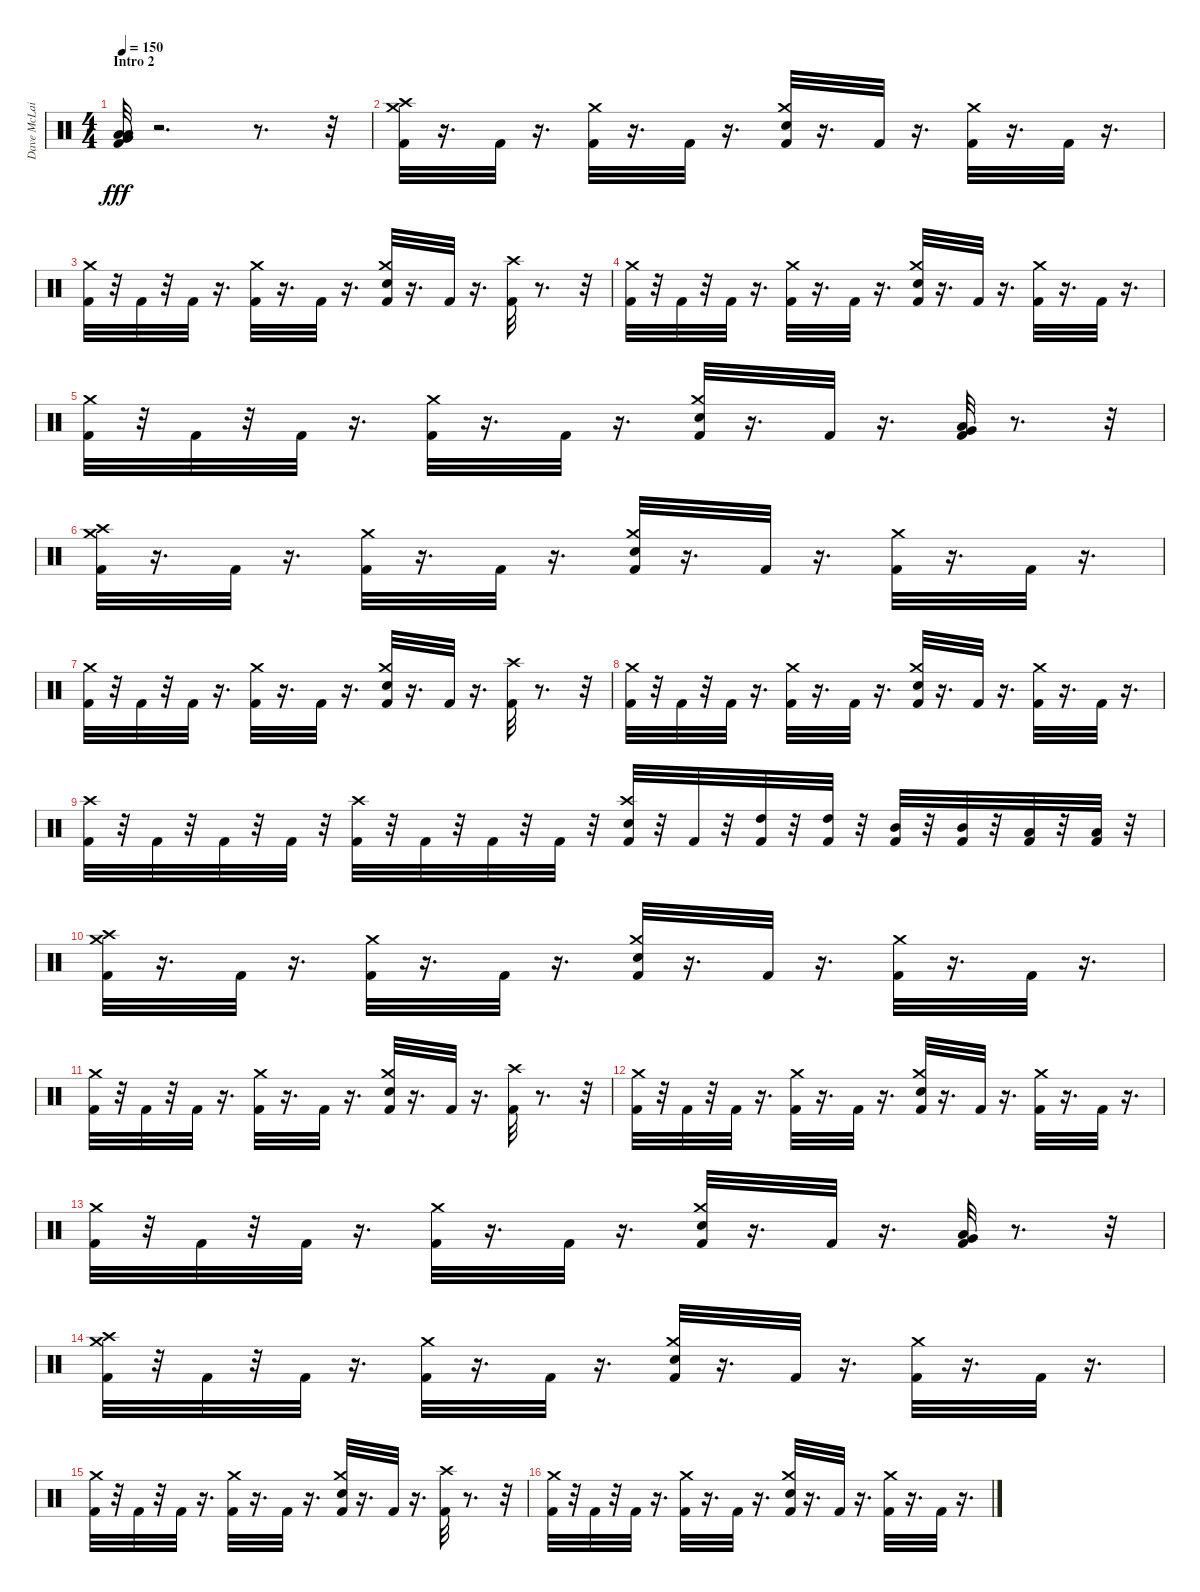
\track ("Dave McLain" "Dave McLai") {instrument percussion}
\staff {score}
\articulation defaults
\ts (4 4)
\section ("" "Intro 2")
\tempo 150
\clef neutral
\ks c
("Low Tom (hit)" "Very Low Tom (hit)" "Low Floor Tom (hit)" "Kick (hit) 2").32{dy fff} r.2{d} r.8{d} r.32 |
("Crash medium (hit)" "Crash high (hit)" "Kick (hit) 2").32 r.16{d} "Kick (hit) 2".32 r.16{d} ("Crash medium (hit)" "Kick (hit) 2").32 r.16{d} "Kick (hit) 2".32 r.16{d} ("Snare (hit) 2" "Crash medium (hit)" "Kick (hit) 2").32 r.16{d} "Kick (hit) 2".32 r.16{d} ("Crash medium (hit)" "Kick (hit) 2").32 r.16{d} "Kick (hit) 2".32 r.16{d} |
("Crash medium (hit)" "Kick (hit) 2").32 r.32 "Kick (hit) 2".32 r.32 "Kick (hit) 2".32 r.16{d} ("Crash medium (hit)" "Kick (hit) 2").32 r.16{d} "Kick (hit) 2".32 r.16{d} ("Snare (hit) 2" "Crash medium (hit)" "Kick (hit) 2").32 r.16{d} "Kick (hit) 2".32 r.16{d} ("Crash high (hit)" "Kick (hit) 2").32 r.8{d} r.32 |
("Crash medium (hit)" "Kick (hit) 2").32 r.32 "Kick (hit) 2".32 r.32 "Kick (hit) 2".32 r.16{d} ("Kick (hit) 2" "Crash medium (hit)").32 r.16{d} "Kick (hit) 2".32 r.16{d} ("Snare (hit) 2" "Kick (hit) 2" "Crash medium (hit)").32 r.16{d} "Kick (hit) 2".32 r.16{d} ("Crash medium (hit)" "Kick (hit) 2").32 r.16{d} "Kick (hit) 2".32 r.16{d} |
("Crash medium (hit)" "Kick (hit) 2").32 r.32 "Kick (hit) 2".32 r.32 "Kick (hit) 2".32 r.16{d} ("Crash medium (hit)" "Kick (hit) 2").32 r.16{d} "Kick (hit) 2".32 r.16{d} ("Snare (hit) 2" "Crash medium (hit)" "Kick (hit) 2").32 r.16{d} "Kick (hit) 2".32 r.16{d} ("Low Floor Tom (hit)" "Very Low Tom (hit)" "Kick (hit) 2").32 r.8{d} r.32 |
("Crash medium (hit)" "Crash high (hit)" "Kick (hit) 2").32 r.16{d} "Kick (hit) 2".32 r.16{d} ("Crash medium (hit)" "Kick (hit) 2").32 r.16{d} "Kick (hit) 2".32 r.16{d} ("Snare (hit) 2" "Crash medium (hit)" "Kick (hit) 2").32 r.16{d} "Kick (hit) 2".32 r.16{d} ("Crash medium (hit)" "Kick (hit) 2").32 r.16{d} "Kick (hit) 2".32 r.16{d} |
("Crash medium (hit)" "Kick (hit) 2").32 r.32 "Kick (hit) 2".32 r.32 "Kick (hit) 2".32 r.16{d} ("Crash medium (hit)" "Kick (hit) 2").32 r.16{d} "Kick (hit) 2".32 r.16{d} ("Snare (hit) 2" "Crash medium (hit)" "Kick (hit) 2").32 r.16{d} "Kick (hit) 2".32 r.16{d} ("Crash high (hit)" "Kick (hit) 2").32 r.8{d} r.32 |
("Crash medium (hit)" "Kick (hit) 2").32 r.32 "Kick (hit) 2".32 r.32 "Kick (hit) 2".32 r.16{d} ("Kick (hit) 2" "Crash medium (hit)").32 r.16{d} "Kick (hit) 2".32 r.16{d} ("Snare (hit) 2" "Kick (hit) 2" "Crash medium (hit)").32 r.16{d} "Kick (hit) 2".32 r.16{d} ("Crash medium (hit)" "Kick (hit) 2").32 r.16{d} "Kick (hit) 2".32 r.16{d} |
("Crash high (hit)" "Kick (hit) 2").32 r.32 "Kick (hit) 2".32 r.32 "Kick (hit) 2".32 r.32 "Kick (hit) 2".32 r.32 ("Crash high (hit)" "Kick (hit) 2").32 r.32 "Kick (hit) 2".32 r.32 "Kick (hit) 2".32 r.32 "Kick (hit) 2".32 r.32 ("Crash high (hit)" "Snare (hit) 2" "Kick (hit) 2").32 r.32 "Kick (hit) 2".32 r.32 ("High Tom (hit)" "Kick (hit) 2").32 r.32 ("High Tom (hit)" "Kick (hit) 2").32 r.32 ("Mid Tom (hit)" "Kick (hit) 2").32 r.32 ("Mid Tom (hit)" "Kick (hit) 2").32 r.32 ("Low Tom (hit)" "Kick (hit) 2").32 r.32 ("Low Tom (hit)" "Kick (hit) 2").32 r.32 |
("Crash medium (hit)" "Crash high (hit)" "Kick (hit) 2").32 r.16{d} "Kick (hit) 2".32 r.16{d} ("Crash medium (hit)" "Kick (hit) 2").32 r.16{d} "Kick (hit) 2".32 r.16{d} ("Snare (hit) 2" "Crash medium (hit)" "Kick (hit) 2").32 r.16{d} "Kick (hit) 2".32 r.16{d} ("Crash medium (hit)" "Kick (hit) 2").32 r.16{d} "Kick (hit) 2".32 r.16{d} |
("Crash medium (hit)" "Kick (hit) 2").32 r.32 "Kick (hit) 2".32 r.32 "Kick (hit) 2".32 r.16{d} ("Crash medium (hit)" "Kick (hit) 2").32 r.16{d} "Kick (hit) 2".32 r.16{d} ("Snare (hit) 2" "Crash medium (hit)" "Kick (hit) 2").32 r.16{d} "Kick (hit) 2".32 r.16{d} ("Crash high (hit)" "Kick (hit) 2").32 r.8{d} r.32 |
("Crash medium (hit)" "Kick (hit) 2").32 r.32 "Kick (hit) 2".32 r.32 "Kick (hit) 2".32 r.16{d} ("Kick (hit) 2" "Crash medium (hit)").32 r.16{d} "Kick (hit) 2".32 r.16{d} ("Snare (hit) 2" "Kick (hit) 2" "Crash medium (hit)").32 r.16{d} "Kick (hit) 2".32 r.16{d} ("Crash medium (hit)" "Kick (hit) 2").32 r.16{d} "Kick (hit) 2".32 r.16{d} |
("Crash medium (hit)" "Kick (hit) 2").32 r.32 "Kick (hit) 2".32 r.32 "Kick (hit) 2".32 r.16{d} ("Crash medium (hit)" "Kick (hit) 2").32 r.16{d} "Kick (hit) 2".32 r.16{d} ("Snare (hit) 2" "Crash medium (hit)" "Kick (hit) 2").32 r.16{d} "Kick (hit) 2".32 r.16{d} ("Low Floor Tom (hit)" "Very Low Tom (hit)" "Kick (hit) 2").32 r.8{d} r.32 |
("Crash medium (hit)" "Crash high (hit)" "Kick (hit) 2").32 r.32 "Kick (hit) 2".32 r.32 "Kick (hit) 2".32 r.16{d} ("Crash medium (hit)" "Kick (hit) 2").32 r.16{d} "Kick (hit) 2".32 r.16{d} ("Snare (hit) 2" "Crash medium (hit)" "Kick (hit) 2").32 r.16{d} "Kick (hit) 2".32 r.16{d} ("Crash medium (hit)" "Kick (hit) 2").32 r.16{d} "Kick (hit) 2".32 r.16{d} |
("Crash medium (hit)" "Kick (hit) 2").32 r.32 "Kick (hit) 2".32 r.32 "Kick (hit) 2".32 r.16{d} ("Crash medium (hit)" "Kick (hit) 2").32 r.16{d} "Kick (hit) 2".32 r.16{d} ("Snare (hit) 2" "Crash medium (hit)" "Kick (hit) 2").32 r.16{d} "Kick (hit) 2".32 r.16{d} ("Crash high (hit)" "Kick (hit) 2").32 r.8{d} r.32 |
("Crash medium (hit)" "Kick (hit) 2").32 r.32 "Kick (hit) 2".32 r.32 "Kick (hit) 2".32 r.16{d} ("Kick (hit) 2" "Crash medium (hit)").32 r.16{d} "Kick (hit) 2".32 r.16{d} ("Snare (hit) 2" "Kick (hit) 2" "Crash medium (hit)").32 r.16{d} "Kick (hit) 2".32 r.16{d} ("Crash medium (hit)" "Kick (hit) 2").32 r.16{d} "Kick (hit) 2".32 r.16{d}
